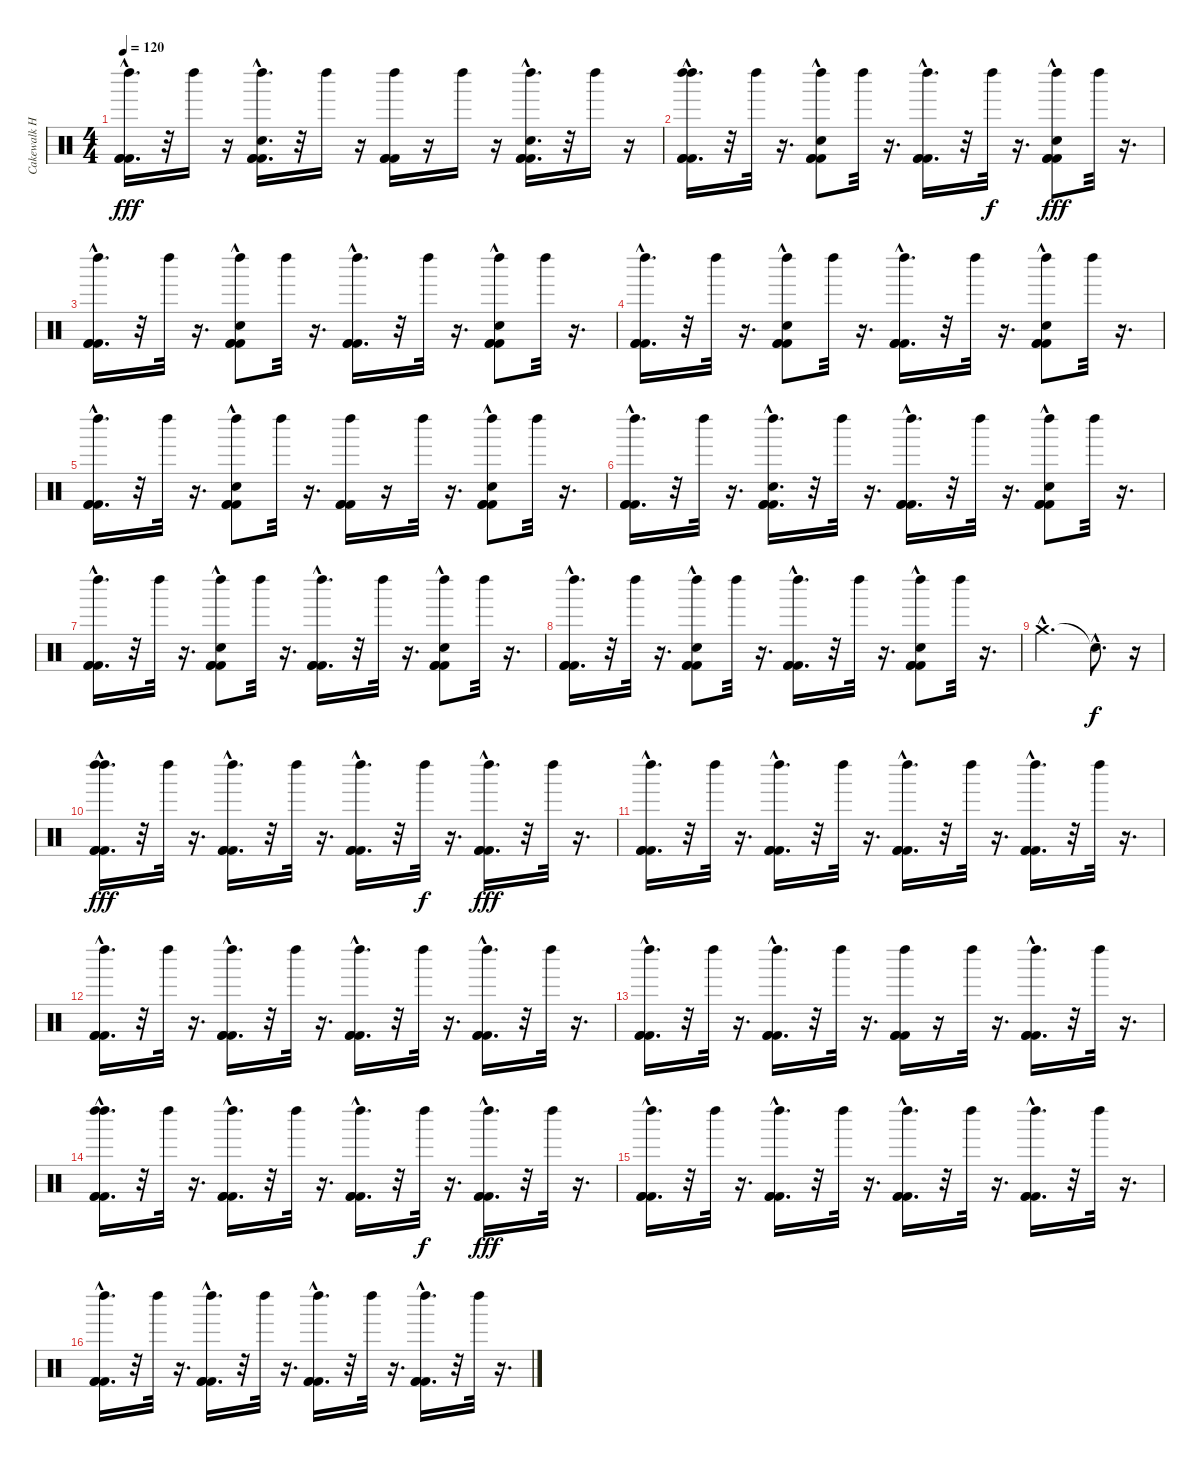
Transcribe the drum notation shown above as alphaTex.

\track ("Cakewalk Home Studio 5.0" "Cakewalk H") {instrument percussion}
\staff {score}
\articulation defaults
\ts (4 4)
\tempo 120
\clef neutral
\ks c
("Kick (hit) 2"{hac} "Kick (hit) 2"{hac} "Left Maraca (hit)" "Kick (hit) 2"{hac}).16{d dy fff} r.32 "Left Maraca (hit)".16 r.16 ("Kick (hit) 2"{hac} "Left Maraca (hit)" "Kick (hit) 2"{hac} "Hand Clap (hit)"{hac} "Kick (hit) 2"{hac}).16{d} r.32 "Left Maraca (hit)".16 r.16 ("Kick (hit) 2" "Left Maraca (hit)" "Kick (hit) 2" "Kick (hit) 2").16 r.16 "Left Maraca (hit)".16 r.16 ("Kick (hit) 2"{hac} "Hand Clap (hit)"{hac} "Left Maraca (hit)" "Kick (hit) 2"{hac} "Kick (hit) 2"{hac}).16{d} r.32 "Left Maraca (hit)".16 r.16 |
("Left Maraca (hit)" "Left Maraca (hit)" "Kick (hit) 2"{hac} "Kick (hit) 2"{hac} "Kick (hit) 2"{hac}).16{d} r.32 "Left Maraca (hit)".32 r.16{d} ("Hand Clap (hit)" "Left Maraca (hit)" "Kick (hit) 2"{hac} "Kick (hit) 2"{hac} "Kick (hit) 2"{hac}).8 "Left Maraca (hit)".32 r.16{d} ("Left Maraca (hit)" "Kick (hit) 2"{hac} "Kick (hit) 2"{hac} "Kick (hit) 2"{hac}).16{d} r.32 "Left Maraca (hit)".32{dy f} r.16{d} ("Hand Clap (hit)" "Left Maraca (hit)" "Kick (hit) 2"{hac} "Kick (hit) 2"{hac} "Kick (hit) 2"{hac}).8{dy fff} "Left Maraca (hit)".32 r.16{d} |
("Left Maraca (hit)" "Kick (hit) 2"{hac} "Kick (hit) 2"{hac} "Kick (hit) 2"{hac}).16{d} r.32 "Left Maraca (hit)".32 r.16{d} ("Hand Clap (hit)" "Left Maraca (hit)" "Kick (hit) 2"{hac} "Kick (hit) 2"{hac} "Kick (hit) 2"{hac}).8 "Left Maraca (hit)".32 r.16{d} ("Left Maraca (hit)" "Kick (hit) 2"{hac} "Kick (hit) 2"{hac} "Kick (hit) 2"{hac}).16{d} r.32 "Left Maraca (hit)".32 r.16{d} ("Hand Clap (hit)" "Left Maraca (hit)" "Kick (hit) 2"{hac} "Kick (hit) 2"{hac} "Kick (hit) 2"{hac}).8 "Left Maraca (hit)".32 r.16{d} |
("Left Maraca (hit)" "Kick (hit) 2"{hac} "Kick (hit) 2"{hac} "Kick (hit) 2"{hac}).16{d} r.32 "Left Maraca (hit)".32 r.16{d} ("Hand Clap (hit)" "Left Maraca (hit)" "Kick (hit) 2"{hac} "Kick (hit) 2"{hac} "Kick (hit) 2"{hac}).8 "Left Maraca (hit)".32 r.16{d} ("Left Maraca (hit)" "Kick (hit) 2"{hac} "Kick (hit) 2"{hac} "Kick (hit) 2"{hac}).16{d} r.32 "Left Maraca (hit)".32 r.16{d} ("Hand Clap (hit)" "Left Maraca (hit)" "Kick (hit) 2"{hac} "Kick (hit) 2"{hac} "Kick (hit) 2"{hac}).8 "Left Maraca (hit)".32 r.16{d} |
("Left Maraca (hit)" "Kick (hit) 2"{hac} "Kick (hit) 2"{hac} "Kick (hit) 2"{hac}).16{d} r.32 "Left Maraca (hit)".32 r.16{d} ("Hand Clap (hit)" "Left Maraca (hit)" "Kick (hit) 2"{hac} "Kick (hit) 2"{hac} "Kick (hit) 2"{hac}).8 "Left Maraca (hit)".32 r.16{d} ("Left Maraca (hit)" "Kick (hit) 2" "Kick (hit) 2" "Kick (hit) 2").16 r.16 "Left Maraca (hit)".32 r.16{d} ("Hand Clap (hit)" "Left Maraca (hit)" "Kick (hit) 2"{hac} "Kick (hit) 2"{hac} "Kick (hit) 2"{hac}).8 "Left Maraca (hit)".32 r.16{d} |
("Left Maraca (hit)" "Kick (hit) 2"{hac} "Kick (hit) 2"{hac} "Kick (hit) 2"{hac}).16{d} r.32 "Left Maraca (hit)".32 r.16{d} ("Hand Clap (hit)"{hac} "Left Maraca (hit)" "Kick (hit) 2"{hac} "Kick (hit) 2"{hac} "Kick (hit) 2"{hac}).16{d} r.32 "Left Maraca (hit)".32 r.16{d} ("Left Maraca (hit)" "Kick (hit) 2"{hac} "Kick (hit) 2"{hac} "Kick (hit) 2"{hac}).16{d} r.32 "Left Maraca (hit)".32 r.16{d} ("Hand Clap (hit)" "Left Maraca (hit)" "Kick (hit) 2"{hac} "Kick (hit) 2"{hac} "Kick (hit) 2"{hac}).8 "Left Maraca (hit)".32 r.16{d} |
("Left Maraca (hit)" "Kick (hit) 2"{hac} "Kick (hit) 2"{hac} "Kick (hit) 2"{hac}).16{d} r.32 "Left Maraca (hit)".32 r.16{d} ("Hand Clap (hit)" "Left Maraca (hit)" "Kick (hit) 2"{hac} "Kick (hit) 2"{hac} "Kick (hit) 2"{hac}).8 "Left Maraca (hit)".32 r.16{d} ("Left Maraca (hit)" "Kick (hit) 2"{hac} "Kick (hit) 2"{hac} "Kick (hit) 2"{hac}).16{d} r.32 "Left Maraca (hit)".32 r.16{d} ("Hand Clap (hit)" "Left Maraca (hit)" "Kick (hit) 2"{hac} "Kick (hit) 2"{hac} "Kick (hit) 2"{hac}).8 "Left Maraca (hit)".32 r.16{d} |
("Left Maraca (hit)" "Kick (hit) 2"{hac} "Kick (hit) 2"{hac} "Kick (hit) 2"{hac}).16{d} r.32 "Left Maraca (hit)".32 r.16{d} ("Hand Clap (hit)" "Left Maraca (hit)" "Kick (hit) 2"{hac} "Kick (hit) 2"{hac} "Kick (hit) 2"{hac}).8 "Left Maraca (hit)".32 r.16{d} ("Left Maraca (hit)" "Kick (hit) 2"{hac} "Kick (hit) 2"{hac} "Kick (hit) 2"{hac}).16{d} r.32 "Left Maraca (hit)".32 r.16{d} ("Hand Clap (hit)" "Left Maraca (hit)" "Kick (hit) 2"{hac} "Kick (hit) 2"{hac} "Kick (hit) 2"{hac}).8 "Left Maraca (hit)".32 r.16{d} |
"Crash medium (hit)"{hac}.2{d} "Snare (hit)"{hac t}.8{d dy f} r.16 |
("Left Maraca (hit)" "Left Maraca (hit)" "Kick (hit) 2"{hac} "Kick (hit) 2"{hac} "Kick (hit) 2"{hac}).16{d dy fff} r.32 "Left Maraca (hit)".32 r.16{d} ("Left Maraca (hit)" "Kick (hit) 2"{hac} "Kick (hit) 2"{hac} "Kick (hit) 2"{hac}).16{d} r.32 "Left Maraca (hit)".32 r.16{d} ("Left Maraca (hit)" "Kick (hit) 2"{hac} "Kick (hit) 2"{hac} "Kick (hit) 2"{hac}).16{d} r.32 "Left Maraca (hit)".32{dy f} r.16{d} ("Left Maraca (hit)" "Kick (hit) 2"{hac} "Kick (hit) 2"{hac} "Kick (hit) 2"{hac}).16{d dy fff} r.32 "Left Maraca (hit)".32 r.16{d} |
("Left Maraca (hit)" "Kick (hit) 2"{hac} "Kick (hit) 2"{hac} "Kick (hit) 2"{hac}).16{d} r.32 "Left Maraca (hit)".32 r.16{d} ("Left Maraca (hit)" "Kick (hit) 2"{hac} "Kick (hit) 2"{hac} "Kick (hit) 2"{hac}).16{d} r.32 "Left Maraca (hit)".32 r.16{d} ("Left Maraca (hit)" "Kick (hit) 2"{hac} "Kick (hit) 2"{hac} "Kick (hit) 2"{hac}).16{d} r.32 "Left Maraca (hit)".32 r.16{d} ("Left Maraca (hit)" "Kick (hit) 2"{hac} "Kick (hit) 2"{hac} "Kick (hit) 2"{hac}).16{d} r.32 "Left Maraca (hit)".32 r.16{d} |
("Left Maraca (hit)" "Kick (hit) 2"{hac} "Kick (hit) 2"{hac} "Kick (hit) 2"{hac}).16{d} r.32 "Left Maraca (hit)".32 r.16{d} ("Left Maraca (hit)" "Kick (hit) 2"{hac} "Kick (hit) 2"{hac} "Kick (hit) 2"{hac}).16{d} r.32 "Left Maraca (hit)".32 r.16{d} ("Left Maraca (hit)" "Kick (hit) 2"{hac} "Kick (hit) 2"{hac} "Kick (hit) 2"{hac}).16{d} r.32 "Left Maraca (hit)".32 r.16{d} ("Left Maraca (hit)" "Kick (hit) 2"{hac} "Kick (hit) 2"{hac} "Kick (hit) 2"{hac}).16{d} r.32 "Left Maraca (hit)".32 r.16{d} |
("Left Maraca (hit)" "Kick (hit) 2"{hac} "Kick (hit) 2"{hac} "Kick (hit) 2"{hac}).16{d} r.32 "Left Maraca (hit)".32 r.16{d} ("Left Maraca (hit)" "Kick (hit) 2"{hac} "Kick (hit) 2"{hac} "Kick (hit) 2"{hac}).16{d} r.32 "Left Maraca (hit)".32 r.16{d} ("Left Maraca (hit)" "Kick (hit) 2" "Kick (hit) 2" "Kick (hit) 2").16 r.16 "Left Maraca (hit)".32 r.16{d} ("Left Maraca (hit)" "Kick (hit) 2"{hac} "Kick (hit) 2"{hac} "Kick (hit) 2"{hac}).16{d} r.32 "Left Maraca (hit)".32 r.16{d} |
("Kick (hit) 2"{hac} "Kick (hit) 2"{hac} "Kick (hit) 2"{hac} "Left Maraca (hit)" "Left Maraca (hit)").16{d} r.32 "Left Maraca (hit)".32 r.16{d} ("Kick (hit) 2"{hac} "Kick (hit) 2"{hac} "Kick (hit) 2"{hac} "Left Maraca (hit)").16{d} r.32 "Left Maraca (hit)".32 r.16{d} ("Kick (hit) 2"{hac} "Kick (hit) 2"{hac} "Kick (hit) 2"{hac} "Left Maraca (hit)").16{d} r.32 "Left Maraca (hit)".32{dy f} r.16{d} ("Kick (hit) 2"{hac} "Kick (hit) 2"{hac} "Kick (hit) 2"{hac} "Left Maraca (hit)").16{d dy fff} r.32 "Left Maraca (hit)".32 r.16{d} |
("Kick (hit) 2"{hac} "Kick (hit) 2"{hac} "Kick (hit) 2"{hac} "Left Maraca (hit)").16{d} r.32 "Left Maraca (hit)".32 r.16{d} ("Kick (hit) 2"{hac} "Kick (hit) 2"{hac} "Kick (hit) 2"{hac} "Left Maraca (hit)").16{d} r.32 "Left Maraca (hit)".32 r.16{d} ("Kick (hit) 2"{hac} "Kick (hit) 2"{hac} "Kick (hit) 2"{hac} "Left Maraca (hit)").16{d} r.32 "Left Maraca (hit)".32 r.16{d} ("Kick (hit) 2"{hac} "Kick (hit) 2"{hac} "Kick (hit) 2"{hac} "Left Maraca (hit)").16{d} r.32 "Left Maraca (hit)".32 r.16{d} |
("Kick (hit) 2"{hac} "Kick (hit) 2"{hac} "Kick (hit) 2"{hac} "Left Maraca (hit)").16{d} r.32 "Left Maraca (hit)".32 r.16{d} ("Kick (hit) 2"{hac} "Kick (hit) 2"{hac} "Kick (hit) 2"{hac} "Left Maraca (hit)").16{d} r.32 "Left Maraca (hit)".32 r.16{d} ("Kick (hit) 2"{hac} "Kick (hit) 2"{hac} "Kick (hit) 2"{hac} "Left Maraca (hit)").16{d} r.32 "Left Maraca (hit)".32 r.16{d} ("Kick (hit) 2"{hac} "Kick (hit) 2"{hac} "Kick (hit) 2"{hac} "Left Maraca (hit)").16{d} r.32 "Left Maraca (hit)".32 r.16{d}
